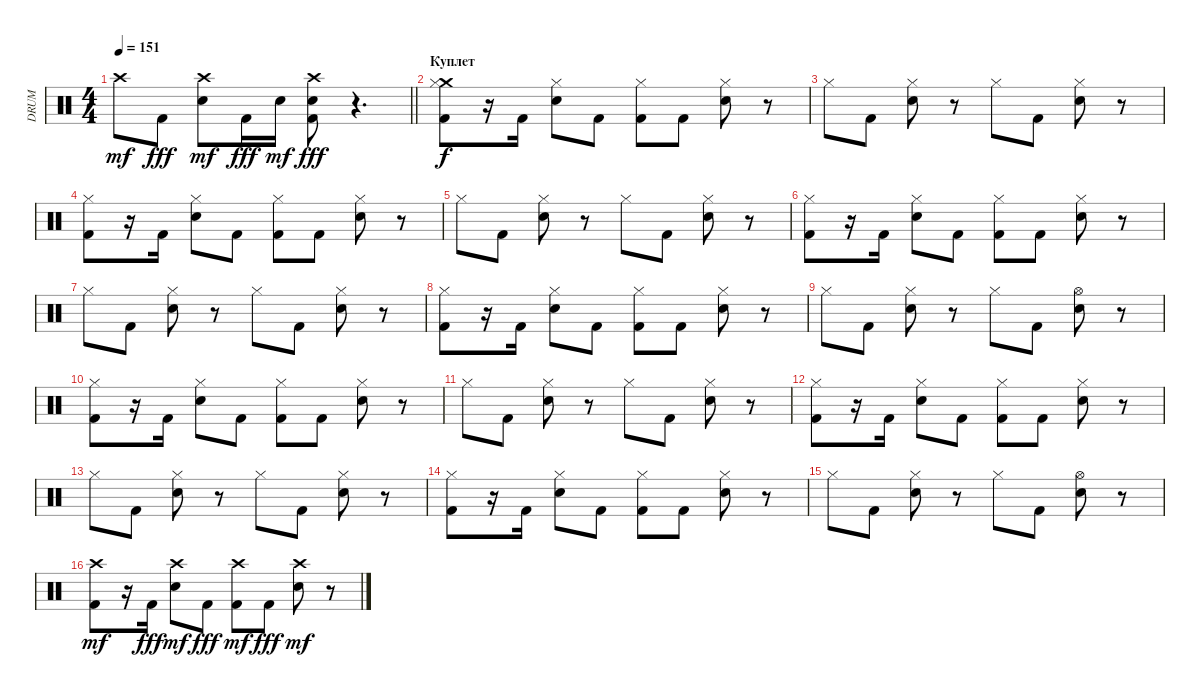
\track ("DRUM" "DRUM") {instrument percussion}
\staff {score}
\articulation defaults
\ts (4 4)
\tempo 151
\clef neutral
\barLineRight lightlight
\ks c "Crash high (hit)".8{dy mf} "Kick (hit) 2".8{dy fff}
("Electric Snare (hit)" "Crash high (hit)").8{dy mf} "Kick (hit) 2".16{dy fff} "Electric Snare (hit)".16{dy mf} ("Electric Snare (hit)" "Crash high (hit)" "Kick (hit) 2").8{dy fff} r.4{d} |
\section ("" "Куплет")
("Crash medium (hit)" "Kick (hit) 2" "Hi-Hat (closed)").8{dy f} r.16 "Kick (hit) 2".16 ("Snare (hit) 2" "Hi-Hat (closed)").8 "Kick (hit) 2".8 ("Kick (hit) 2" "Hi-Hat (closed)").8 "Kick (hit) 2".8 ("Snare (hit) 2" "Hi-Hat (closed)").8 r.8 |
"Hi-Hat (closed)".8 "Kick (hit) 2".8 ("Snare (hit) 2" "Hi-Hat (closed)").8 r.8 "Hi-Hat (closed)".8 "Kick (hit) 2".8 ("Snare (hit) 2" "Hi-Hat (closed)").8 r.8 |
("Kick (hit) 2" "Hi-Hat (closed)").8 r.16 "Kick (hit) 2".16 ("Snare (hit) 2" "Hi-Hat (closed)").8 "Kick (hit) 2".8 ("Kick (hit) 2" "Hi-Hat (closed)").8 "Kick (hit) 2".8 ("Snare (hit) 2" "Hi-Hat (closed)").8 r.8 |
"Hi-Hat (closed)".8 "Kick (hit) 2".8 ("Snare (hit) 2" "Hi-Hat (closed)").8 r.8 "Hi-Hat (closed)".8 "Kick (hit) 2".8 ("Snare (hit) 2" "Hi-Hat (closed)").8 r.8 |
("Kick (hit) 2" "Hi-Hat (closed)").8 r.16 "Kick (hit) 2".16 ("Snare (hit) 2" "Hi-Hat (closed)").8 "Kick (hit) 2".8 ("Kick (hit) 2" "Hi-Hat (closed)").8 "Kick (hit) 2".8 ("Snare (hit) 2" "Hi-Hat (closed)").8 r.8 |
"Hi-Hat (closed)".8 "Kick (hit) 2".8 ("Snare (hit) 2" "Hi-Hat (closed)").8 r.8 "Hi-Hat (closed)".8 "Kick (hit) 2".8 ("Snare (hit) 2" "Hi-Hat (closed)").8 r.8 |
("Kick (hit) 2" "Hi-Hat (closed)").8 r.16 "Kick (hit) 2".16 ("Snare (hit) 2" "Hi-Hat (closed)").8 "Kick (hit) 2".8 ("Kick (hit) 2" "Hi-Hat (closed)").8 "Kick (hit) 2".8 ("Snare (hit) 2" "Hi-Hat (closed)").8 r.8 |
"Hi-Hat (closed)".8 "Kick (hit) 2".8 ("Snare (hit) 2" "Hi-Hat (closed)").8 r.8 "Hi-Hat (closed)".8 "Kick (hit) 2".8 ("Hi-Hat (open)" "Snare (hit) 2").8 r.8 |
("Kick (hit) 2" "Hi-Hat (closed)").8 r.16 "Kick (hit) 2".16 ("Snare (hit) 2" "Hi-Hat (closed)").8 "Kick (hit) 2".8 ("Kick (hit) 2" "Hi-Hat (closed)").8 "Kick (hit) 2".8 ("Snare (hit) 2" "Hi-Hat (closed)").8 r.8 |
"Hi-Hat (closed)".8 "Kick (hit) 2".8 ("Snare (hit) 2" "Hi-Hat (closed)").8 r.8 "Hi-Hat (closed)".8 "Kick (hit) 2".8 ("Snare (hit) 2" "Hi-Hat (closed)").8 r.8 |
("Kick (hit) 2" "Hi-Hat (closed)").8 r.16 "Kick (hit) 2".16 ("Snare (hit) 2" "Hi-Hat (closed)").8 "Kick (hit) 2".8 ("Kick (hit) 2" "Hi-Hat (closed)").8 "Kick (hit) 2".8 ("Snare (hit) 2" "Hi-Hat (closed)").8 r.8 |
"Hi-Hat (closed)".8 "Kick (hit) 2".8 ("Snare (hit) 2" "Hi-Hat (closed)").8 r.8 "Hi-Hat (closed)".8 "Kick (hit) 2".8 ("Snare (hit) 2" "Hi-Hat (closed)").8 r.8 |
("Kick (hit) 2" "Hi-Hat (closed)").8 r.16 "Kick (hit) 2".16 ("Snare (hit) 2" "Hi-Hat (closed)").8 "Kick (hit) 2".8 ("Kick (hit) 2" "Hi-Hat (closed)").8 "Kick (hit) 2".8 ("Snare (hit) 2" "Hi-Hat (closed)").8 r.8 |
"Hi-Hat (closed)".8 "Kick (hit) 2".8 ("Snare (hit) 2" "Hi-Hat (closed)").8 r.8 "Hi-Hat (closed)".8 "Kick (hit) 2".8 ("Hi-Hat (open)" "Snare (hit) 2").8 r.8 |
("Kick (hit) 2" "Crash high (hit)").8{dy mf} r.16 "Kick (hit) 2".16{dy fff} ("Electric Snare (hit)" "Crash high (hit)").8{dy mf} "Kick (hit) 2".8{dy fff} ("Kick (hit) 2" "Crash high (hit)").8{dy mf} "Kick (hit) 2".8{dy fff} ("Electric Snare (hit)" "Crash high (hit)").8{dy mf} r.8
